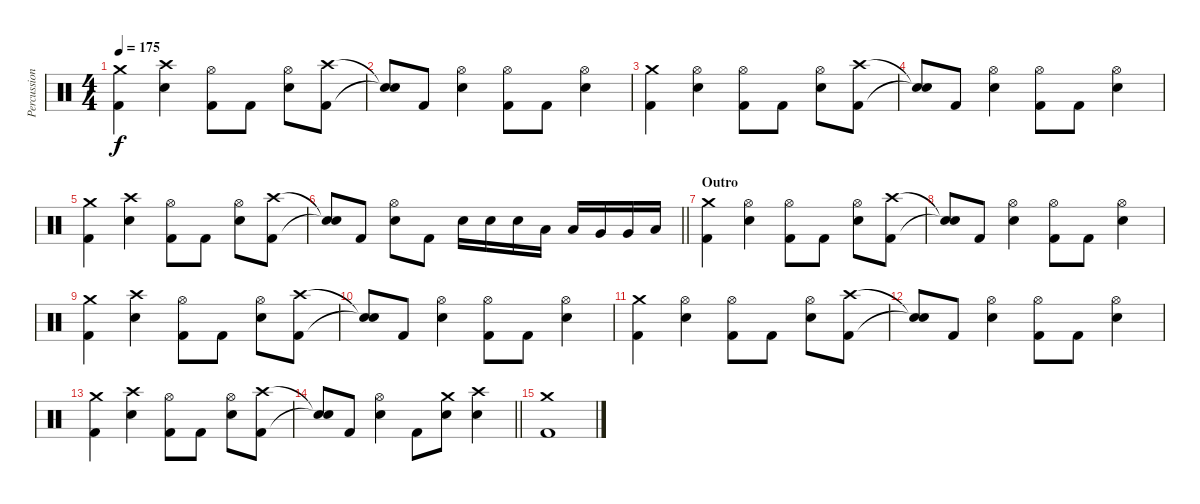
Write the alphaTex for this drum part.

\track ("Percussions" "Percussion") {instrument percussion}
\staff {score}
\articulation defaults
\ts (4 4)
\tempo 175
\clef neutral
\ks c
("Crash medium (hit)" "Kick (hit) 2").4{dy f} ("Crash high (hit)" "Electric Snare (hit)").4 ("Hi-Hat (open)" "Kick (hit) 2").8 "Kick (hit) 2".8 ("Hi-Hat (open)" "Electric Snare (hit)").8 ("Crash high (hit)" "Kick (hit) 2").8 |
("Snare (hit)"{t} "Snare (hit)"{t}).8 "Kick (hit) 2".8 ("Hi-Hat (open)" "Electric Snare (hit)").4 ("Hi-Hat (open)" "Kick (hit) 2").8 "Kick (hit) 2".8 ("Hi-Hat (open)" "Electric Snare (hit)").4 |
("Crash medium (hit)" "Kick (hit) 2").4 ("Hi-Hat (open)" "Electric Snare (hit)").4 ("Hi-Hat (open)" "Kick (hit) 2").8 "Kick (hit) 2".8 ("Hi-Hat (open)" "Electric Snare (hit)").8 ("Crash high (hit)" "Kick (hit) 2").8 |
("Snare (hit)"{t} "Snare (hit)"{t}).8 "Kick (hit) 2".8 ("Hi-Hat (open)" "Electric Snare (hit)").4 ("Hi-Hat (open)" "Kick (hit) 2").8 "Kick (hit) 2".8 ("Hi-Hat (open)" "Electric Snare (hit)").4 |
("Crash medium (hit)" "Kick (hit) 2").4 ("Crash high (hit)" "Electric Snare (hit)").4 ("Hi-Hat (open)" "Kick (hit) 2").8 "Kick (hit) 2".8 ("Hi-Hat (open)" "Electric Snare (hit)").8 ("Crash high (hit)" "Kick (hit) 2").8 |
\barLineRight lightlight
("Snare (hit)"{t} "Snare (hit)"{t}).8 "Kick (hit) 2".8 ("Hi-Hat (open)" "Electric Snare (hit)").8 "Kick (hit) 2".8 "Electric Snare (hit)".16 "Electric Snare (hit)".16 "Electric Snare (hit)".16 "Low Tom (hit)".16 "Low Tom (hit)".16 "Very Low Tom (hit)".16 "Very Low Tom (hit)".16 "Low Floor Tom (hit)".16 |
\section ("" "Outro")
("Crash medium (hit)" "Kick (hit) 2").4 ("Hi-Hat (open)" "Electric Snare (hit)").4 ("Hi-Hat (open)" "Kick (hit) 2").8 "Kick (hit) 2".8 ("Hi-Hat (open)" "Electric Snare (hit)").8 ("Crash high (hit)" "Kick (hit) 2").8 |
("Snare (hit)"{t} "Snare (hit)"{t}).8 "Kick (hit) 2".8 ("Hi-Hat (open)" "Electric Snare (hit)").4 ("Hi-Hat (open)" "Kick (hit) 2").8 "Kick (hit) 2".8 ("Hi-Hat (open)" "Electric Snare (hit)").4 |
("Crash medium (hit)" "Kick (hit) 2").4 ("Crash high (hit)" "Electric Snare (hit)").4 ("Hi-Hat (open)" "Kick (hit) 2").8 "Kick (hit) 2".8 ("Hi-Hat (open)" "Electric Snare (hit)").8 ("Crash high (hit)" "Kick (hit) 2").8 |
("Snare (hit)"{t} "Snare (hit)"{t}).8 "Kick (hit) 2".8 ("Hi-Hat (open)" "Electric Snare (hit)").4 ("Hi-Hat (open)" "Kick (hit) 2").8 "Kick (hit) 2".8 ("Hi-Hat (open)" "Electric Snare (hit)").4 |
("Crash medium (hit)" "Kick (hit) 2").4 ("Hi-Hat (open)" "Electric Snare (hit)").4 ("Hi-Hat (open)" "Kick (hit) 2").8 "Kick (hit) 2".8 ("Hi-Hat (open)" "Electric Snare (hit)").8 ("Crash high (hit)" "Kick (hit) 2").8 |
("Snare (hit)"{t} "Snare (hit)"{t}).8 "Kick (hit) 2".8 ("Hi-Hat (open)" "Electric Snare (hit)").4 ("Hi-Hat (open)" "Kick (hit) 2").8 "Kick (hit) 2".8 ("Hi-Hat (open)" "Electric Snare (hit)").4 |
("Crash medium (hit)" "Kick (hit) 2").4 ("Crash high (hit)" "Electric Snare (hit)").4 ("Hi-Hat (open)" "Kick (hit) 2").8 "Kick (hit) 2".8 ("Hi-Hat (open)" "Electric Snare (hit)").8 ("Crash high (hit)" "Kick (hit) 2").8 |
\barLineRight lightlight
("Snare (hit)"{t} "Snare (hit)"{t}).8 "Kick (hit) 2".8 ("Hi-Hat (open)" "Electric Snare (hit)").4 "Kick (hit) 2".8 ("Crash medium (hit)" "Electric Snare (hit)").8 ("Crash high (hit)" "Electric Snare (hit)").4 |
("Crash medium (hit)" "Kick (hit) 2").1
